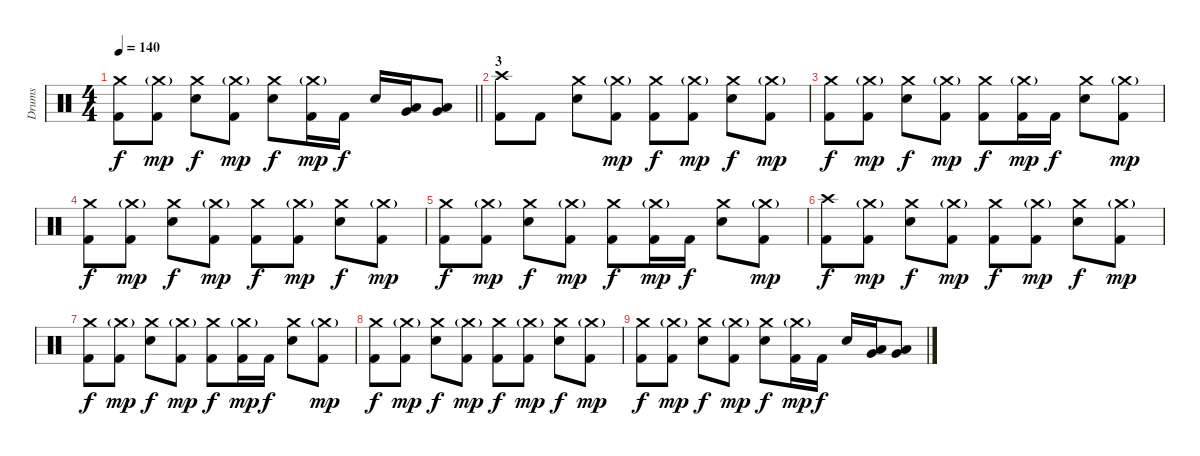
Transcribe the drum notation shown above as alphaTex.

\track ("Drums" "Drums") {instrument percussion}
\staff {score}
\articulation defaults
\ts (4 4)
\tempo 140
\clef neutral
\barLineRight lightlight
\ks c
("Crash medium (hit)" "Kick (hit) 2").8{dy f} ("Crash medium (hit)"{g} "Kick (hit) 2").8{dy mp} ("Crash medium (hit)" "Electric Snare (hit)").8{dy f} ("Crash medium (hit)"{g} "Kick (hit) 2").8{dy mp} ("Crash medium (hit)" "Electric Snare (hit)").8{dy f} ("Crash medium (hit)"{g} "Kick (hit) 2").16{dy mp} "Kick (hit) 2".16{dy f} "Electric Snare (hit)".16 ("Low Floor Tom (hit)" "Very Low Tom (hit)").16 ("Low Floor Tom (hit)" "Very Low Tom (hit)").8 |
\section ("" "3")
("Crash high (hit)" "Kick (hit) 2").8 "Kick (hit) 2".8 ("Crash medium (hit)" "Electric Snare (hit)").8 ("Crash medium (hit)"{g} "Kick (hit) 2").8{dy mp} ("Crash medium (hit)" "Kick (hit) 2").8{dy f} ("Crash medium (hit)"{g} "Kick (hit) 2").8{dy mp} ("Crash medium (hit)" "Electric Snare (hit)").8{dy f} ("Crash medium (hit)"{g} "Kick (hit) 2").8{dy mp} |
("Crash medium (hit)" "Kick (hit) 2").8{dy f} ("Crash medium (hit)"{g} "Kick (hit) 2").8{dy mp} ("Crash medium (hit)" "Electric Snare (hit)").8{dy f} ("Crash medium (hit)"{g} "Kick (hit) 2").8{dy mp} ("Crash medium (hit)" "Kick (hit) 2").8{dy f} ("Crash medium (hit)"{g} "Kick (hit) 2").16{dy mp} "Kick (hit) 2".16{dy f} ("Crash medium (hit)" "Electric Snare (hit)").8 ("Crash medium (hit)"{g} "Kick (hit) 2").8{dy mp} |
("Crash medium (hit)" "Kick (hit) 2").8{dy f} ("Crash medium (hit)"{g} "Kick (hit) 2").8{dy mp} ("Crash medium (hit)" "Electric Snare (hit)").8{dy f} ("Crash medium (hit)"{g} "Kick (hit) 2").8{dy mp} ("Crash medium (hit)" "Kick (hit) 2").8{dy f} ("Crash medium (hit)"{g} "Kick (hit) 2").8{dy mp} ("Crash medium (hit)" "Electric Snare (hit)").8{dy f} ("Crash medium (hit)"{g} "Kick (hit) 2").8{dy mp} |
("Crash medium (hit)" "Kick (hit) 2").8{dy f} ("Crash medium (hit)"{g} "Kick (hit) 2").8{dy mp} ("Crash medium (hit)" "Electric Snare (hit)").8{dy f} ("Crash medium (hit)"{g} "Kick (hit) 2").8{dy mp} ("Crash medium (hit)" "Kick (hit) 2").8{dy f} ("Crash medium (hit)"{g} "Kick (hit) 2").16{dy mp} "Kick (hit) 2".16{dy f} ("Crash medium (hit)" "Electric Snare (hit)").8 ("Crash medium (hit)"{g} "Kick (hit) 2").8{dy mp} |
("Crash high (hit)" "Kick (hit) 2").8{dy f} ("Crash medium (hit)"{g} "Kick (hit) 2").8{dy mp} ("Crash medium (hit)" "Electric Snare (hit)").8{dy f} ("Crash medium (hit)"{g} "Kick (hit) 2").8{dy mp} ("Crash medium (hit)" "Kick (hit) 2").8{dy f} ("Crash medium (hit)"{g} "Kick (hit) 2").8{dy mp} ("Crash medium (hit)" "Electric Snare (hit)").8{dy f} ("Crash medium (hit)"{g} "Kick (hit) 2").8{dy mp} |
("Crash medium (hit)" "Kick (hit) 2").8{dy f} ("Crash medium (hit)"{g} "Kick (hit) 2").8{dy mp} ("Crash medium (hit)" "Electric Snare (hit)").8{dy f} ("Crash medium (hit)"{g} "Kick (hit) 2").8{dy mp} ("Crash medium (hit)" "Kick (hit) 2").8{dy f} ("Crash medium (hit)"{g} "Kick (hit) 2").16{dy mp} "Kick (hit) 2".16{dy f} ("Crash medium (hit)" "Electric Snare (hit)").8 ("Crash medium (hit)"{g} "Kick (hit) 2").8{dy mp} |
("Crash medium (hit)" "Kick (hit) 2").8{dy f} ("Crash medium (hit)"{g} "Kick (hit) 2").8{dy mp} ("Crash medium (hit)" "Electric Snare (hit)").8{dy f} ("Crash medium (hit)"{g} "Kick (hit) 2").8{dy mp} ("Crash medium (hit)" "Kick (hit) 2").8{dy f} ("Crash medium (hit)"{g} "Kick (hit) 2").8{dy mp} ("Crash medium (hit)" "Electric Snare (hit)").8{dy f} ("Crash medium (hit)"{g} "Kick (hit) 2").8{dy mp} |
("Crash medium (hit)" "Kick (hit) 2").8{dy f} ("Crash medium (hit)"{g} "Kick (hit) 2").8{dy mp} ("Crash medium (hit)" "Electric Snare (hit)").8{dy f} ("Crash medium (hit)"{g} "Kick (hit) 2").8{dy mp} ("Crash medium (hit)" "Electric Snare (hit)").8{dy f} ("Crash medium (hit)"{g} "Kick (hit) 2").16{dy mp} "Kick (hit) 2".16{dy f} "Electric Snare (hit)".16 ("Low Floor Tom (hit)" "Very Low Tom (hit)").16 ("Low Floor Tom (hit)" "Very Low Tom (hit)").8
